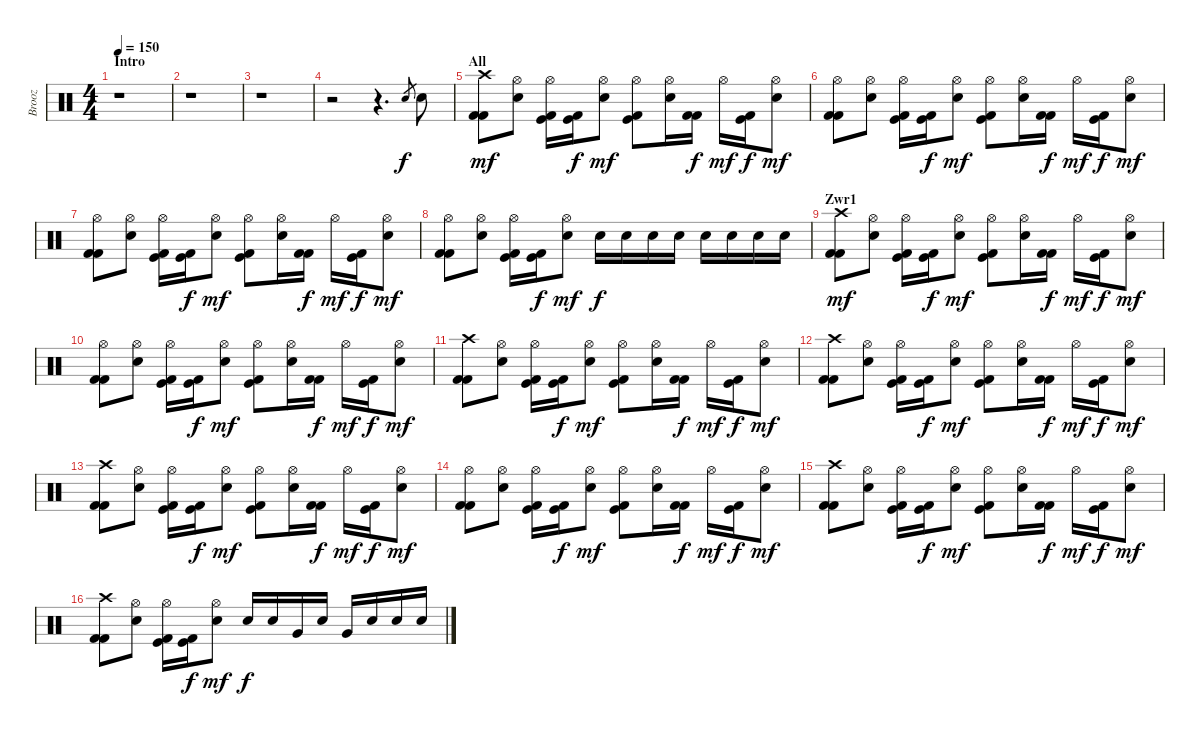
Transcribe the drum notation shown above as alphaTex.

\track ("Brooz" "Brooz") {instrument percussion}
\staff {score}
\articulation defaults
\ts (4 4)
\section ("" "Intro")
\tempo 150
\clef neutral
\ks c
r.1{dy f} |
r.1 |
r.1 |
r.2 r.4{d} "Snare (hit) 2".8{gr} "Snare (hit) 2".8 |
\section ("" "All")
("Crash high (hit)" "Kick (hit) 2" "Kick (hit) 2").8{dy mf} ("Hi-Hat (open)" "Snare (hit) 2").8 ("Hi-Hat (open)" "Kick (hit) 2" "Kick (hit)").16 ("Kick (hit) 2" "Kick (hit)").16{dy f} ("Hi-Hat (open)" "Snare (hit) 2").8{dy mf} ("Hi-Hat (open)" "Kick (hit) 2" "Kick (hit)").8 ("Hi-Hat (open)" "Snare (hit) 2").16 ("Kick (hit) 2" "Kick (hit) 2").16{dy f} "Hi-Hat (open)".16{dy mf} ("Kick (hit) 2" "Kick (hit)").16{dy f} ("Hi-Hat (open)" "Snare (hit) 2").8{dy mf} |
("Hi-Hat (open)" "Kick (hit) 2" "Kick (hit) 2").8 ("Hi-Hat (open)" "Snare (hit) 2").8 ("Hi-Hat (open)" "Kick (hit) 2" "Kick (hit)").16 ("Kick (hit) 2" "Kick (hit)").16{dy f} ("Hi-Hat (open)" "Snare (hit) 2").8{dy mf} ("Hi-Hat (open)" "Kick (hit) 2" "Kick (hit)").8 ("Hi-Hat (open)" "Snare (hit) 2").16 ("Kick (hit) 2" "Kick (hit) 2").16{dy f} "Hi-Hat (open)".16{dy mf} ("Kick (hit) 2" "Kick (hit)").16{dy f} ("Hi-Hat (open)" "Snare (hit) 2").8{dy mf} |
("Hi-Hat (open)" "Kick (hit) 2" "Kick (hit) 2").8 ("Hi-Hat (open)" "Snare (hit) 2").8 ("Hi-Hat (open)" "Kick (hit) 2" "Kick (hit)").16 ("Kick (hit) 2" "Kick (hit)").16{dy f} ("Hi-Hat (open)" "Snare (hit) 2").8{dy mf} ("Hi-Hat (open)" "Kick (hit) 2" "Kick (hit)").8 ("Hi-Hat (open)" "Snare (hit) 2").16 ("Kick (hit) 2" "Kick (hit) 2").16{dy f} "Hi-Hat (open)".16{dy mf} ("Kick (hit) 2" "Kick (hit)").16{dy f} ("Hi-Hat (open)" "Snare (hit) 2").8{dy mf} |
("Hi-Hat (open)" "Kick (hit) 2" "Kick (hit) 2").8 ("Hi-Hat (open)" "Snare (hit) 2").8 ("Hi-Hat (open)" "Kick (hit) 2" "Kick (hit)").16 ("Kick (hit) 2" "Kick (hit)").16{dy f} ("Hi-Hat (open)" "Snare (hit) 2").8{dy mf} "Snare (hit) 2".16{dy f} "Snare (hit) 2".16 "Snare (hit) 2".16 "Snare (hit) 2".16 "Snare (hit) 2".16 "Snare (hit) 2".16 "Snare (hit) 2".16 "Snare (hit) 2".16 |
\section ("" "Zwr1")
("Crash high (hit)" "Kick (hit) 2" "Kick (hit) 2").8{dy mf} ("Hi-Hat (open)" "Snare (hit) 2").8 ("Hi-Hat (open)" "Kick (hit) 2" "Kick (hit)").16 ("Kick (hit) 2" "Kick (hit)").16{dy f} ("Hi-Hat (open)" "Snare (hit) 2").8{dy mf} ("Hi-Hat (open)" "Kick (hit) 2" "Kick (hit)").8 ("Hi-Hat (open)" "Snare (hit) 2").16 ("Kick (hit) 2" "Kick (hit) 2").16{dy f} "Hi-Hat (open)".16{dy mf} ("Kick (hit) 2" "Kick (hit)").16{dy f} ("Hi-Hat (open)" "Snare (hit) 2").8{dy mf} |
("Hi-Hat (open)" "Kick (hit) 2" "Kick (hit) 2").8 ("Hi-Hat (open)" "Snare (hit) 2").8 ("Hi-Hat (open)" "Kick (hit) 2" "Kick (hit)").16 ("Kick (hit) 2" "Kick (hit)").16{dy f} ("Hi-Hat (open)" "Snare (hit) 2").8{dy mf} ("Hi-Hat (open)" "Kick (hit) 2" "Kick (hit)").8 ("Hi-Hat (open)" "Snare (hit) 2").16 ("Kick (hit) 2" "Kick (hit) 2").16{dy f} "Hi-Hat (open)".16{dy mf} ("Kick (hit) 2" "Kick (hit)").16{dy f} ("Hi-Hat (open)" "Snare (hit) 2").8{dy mf} |
("Crash high (hit)" "Kick (hit) 2" "Kick (hit) 2").8 ("Hi-Hat (open)" "Snare (hit) 2").8 ("Hi-Hat (open)" "Kick (hit) 2" "Kick (hit)").16 ("Kick (hit) 2" "Kick (hit)").16{dy f} ("Hi-Hat (open)" "Snare (hit) 2").8{dy mf} ("Hi-Hat (open)" "Kick (hit) 2" "Kick (hit)").8 ("Hi-Hat (open)" "Snare (hit) 2").16 ("Kick (hit) 2" "Kick (hit) 2").16{dy f} "Hi-Hat (open)".16{dy mf} ("Kick (hit) 2" "Kick (hit)").16{dy f} ("Hi-Hat (open)" "Snare (hit) 2").8{dy mf} |
("Crash high (hit)" "Kick (hit) 2" "Kick (hit) 2").8 ("Hi-Hat (open)" "Snare (hit) 2").8 ("Hi-Hat (open)" "Kick (hit) 2" "Kick (hit)").16 ("Kick (hit) 2" "Kick (hit)").16{dy f} ("Hi-Hat (open)" "Snare (hit) 2").8{dy mf} ("Hi-Hat (open)" "Kick (hit) 2" "Kick (hit)").8 ("Hi-Hat (open)" "Snare (hit) 2").16 ("Kick (hit) 2" "Kick (hit) 2").16{dy f} "Hi-Hat (open)".16{dy mf} ("Kick (hit) 2" "Kick (hit)").16{dy f} ("Hi-Hat (open)" "Snare (hit) 2").8{dy mf} |
("Crash high (hit)" "Kick (hit) 2" "Kick (hit) 2").8 ("Hi-Hat (open)" "Snare (hit) 2").8 ("Hi-Hat (open)" "Kick (hit) 2" "Kick (hit)").16 ("Kick (hit) 2" "Kick (hit)").16{dy f} ("Hi-Hat (open)" "Snare (hit) 2").8{dy mf} ("Hi-Hat (open)" "Kick (hit) 2" "Kick (hit)").8 ("Hi-Hat (open)" "Snare (hit) 2").16 ("Kick (hit) 2" "Kick (hit) 2").16{dy f} "Hi-Hat (open)".16{dy mf} ("Kick (hit) 2" "Kick (hit)").16{dy f} ("Hi-Hat (open)" "Snare (hit) 2").8{dy mf} |
("Hi-Hat (open)" "Kick (hit) 2" "Kick (hit) 2").8 ("Hi-Hat (open)" "Snare (hit) 2").8 ("Hi-Hat (open)" "Kick (hit) 2" "Kick (hit)").16 ("Kick (hit) 2" "Kick (hit)").16{dy f} ("Hi-Hat (open)" "Snare (hit) 2").8{dy mf} ("Hi-Hat (open)" "Kick (hit) 2" "Kick (hit)").8 ("Hi-Hat (open)" "Snare (hit) 2").16 ("Kick (hit) 2" "Kick (hit) 2").16{dy f} "Hi-Hat (open)".16{dy mf} ("Kick (hit) 2" "Kick (hit)").16{dy f} ("Hi-Hat (open)" "Snare (hit) 2").8{dy mf} |
("Crash high (hit)" "Kick (hit) 2" "Kick (hit) 2").8 ("Hi-Hat (open)" "Snare (hit) 2").8 ("Hi-Hat (open)" "Kick (hit) 2" "Kick (hit)").16 ("Kick (hit) 2" "Kick (hit)").16{dy f} ("Hi-Hat (open)" "Snare (hit) 2").8{dy mf} ("Hi-Hat (open)" "Kick (hit) 2" "Kick (hit)").8 ("Hi-Hat (open)" "Snare (hit) 2").16 ("Kick (hit) 2" "Kick (hit) 2").16{dy f} "Hi-Hat (open)".16{dy mf} ("Kick (hit) 2" "Kick (hit)").16{dy f} ("Hi-Hat (open)" "Snare (hit) 2").8{dy mf} |
("Crash high (hit)" "Kick (hit) 2" "Kick (hit) 2").8 ("Hi-Hat (open)" "Snare (hit) 2").8 ("Hi-Hat (open)" "Kick (hit) 2" "Kick (hit)").16 ("Kick (hit) 2" "Kick (hit)").16{dy f} ("Hi-Hat (open)" "Snare (hit) 2").8{dy mf} "Snare (hit) 2".16{dy f} "Snare (hit) 2".16 "Very Low Tom (hit)".16 "Snare (hit) 2".16 "Very Low Tom (hit)".16 "Snare (hit) 2".16 "Snare (hit) 2".16 "Snare (hit) 2".16
